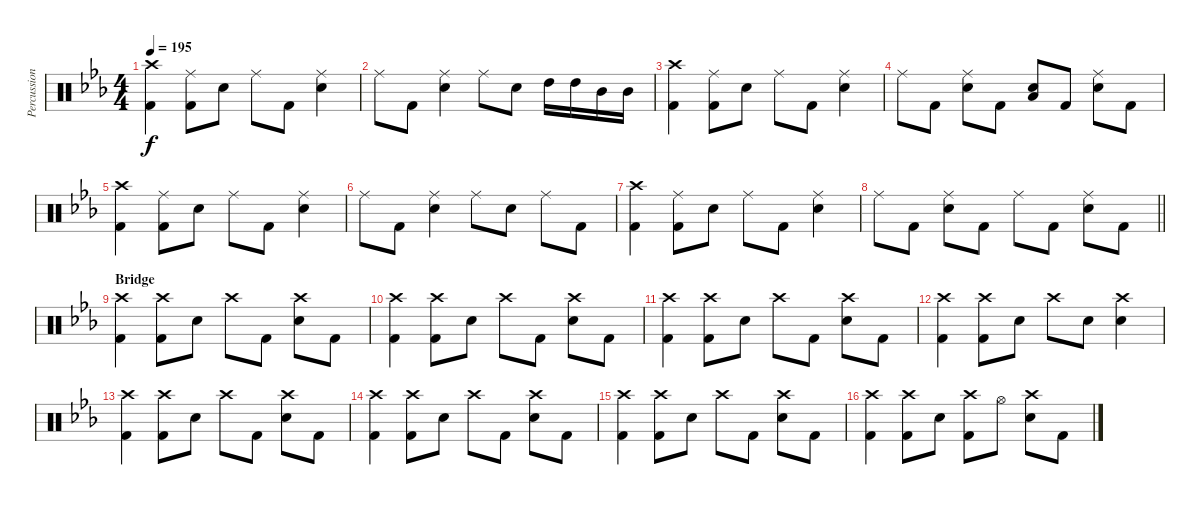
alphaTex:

\track ("Percussion" "Percussion") {instrument percussion}
\staff {score}
\articulation defaults
\ts (4 4)
\tempo 195
\clef neutral
\ks eb
("Crash high (hit)" "Kick (hit) 2").4{dy f} ("Ride (middle)" "Kick (hit) 2").8 "Snare (hit) 2".8 "Ride (middle)".8 "Kick (hit) 2".8 ("Ride (middle)" "Snare (hit) 2").4 |
"Ride (middle)".8 "Kick (hit) 2".8 ("Ride (middle)" "Snare (hit) 2").4 "Ride (middle)".8 "Snare (hit) 2".8 "High Tom (hit)".16 "High Tom (hit)".16 "Mid Tom (hit)".16 "Mid Tom (hit)".16 |
("Crash high (hit)" "Kick (hit) 2").4 ("Ride (middle)" "Kick (hit) 2").8 "Snare (hit) 2".8 "Ride (middle)".8 "Kick (hit) 2".8 ("Ride (middle)" "Snare (hit) 2").4 |
"Ride (middle)".8 "Kick (hit) 2".8 ("Ride (middle)" "Snare (hit) 2").8 "Kick (hit) 2".8 ("Low Tom (hit)" "Snare (hit) 2").8 "Kick (hit) 2".8 ("Ride (middle)" "Snare (hit) 2").8 "Kick (hit) 2".8 |
("Crash high (hit)" "Kick (hit) 2").4 ("Ride (middle)" "Kick (hit) 2").8 "Snare (hit) 2".8 "Ride (middle)".8 "Kick (hit) 2".8 ("Ride (middle)" "Snare (hit) 2").4 |
"Ride (middle)".8 "Kick (hit) 2".8 ("Ride (middle)" "Snare (hit) 2").4 "Ride (middle)".8 "Snare (hit) 2".8 "Ride (middle)".8 "Kick (hit) 2".8 |
("Crash high (hit)" "Kick (hit) 2").4 ("Ride (middle)" "Kick (hit) 2").8 "Snare (hit) 2".8 "Ride (middle)".8 "Kick (hit) 2".8 ("Ride (middle)" "Snare (hit) 2").4 |
\barLineRight lightlight "Ride (middle)".8 "Kick (hit) 2".8
("Ride (middle)" "Snare (hit) 2").8 "Kick (hit) 2".8 "Ride (middle)".8 "Kick (hit) 2".8 ("Ride (middle)" "Snare (hit) 2").8 "Kick (hit) 2".8 |
\section ("" "Bridge")
("Crash high (hit)" "Kick (hit) 2").4 ("Crash high (hit)" "Kick (hit) 2").8 "Snare (hit) 2".8 "Crash high (hit)".8 "Kick (hit) 2".8 ("Crash high (hit)" "Snare (hit) 2").8 "Kick (hit) 2".8 |
("Crash high (hit)" "Kick (hit) 2").4 ("Crash high (hit)" "Kick (hit) 2").8 "Snare (hit) 2".8 "Crash high (hit)".8 "Kick (hit) 2".8 ("Crash high (hit)" "Snare (hit) 2").8 "Kick (hit) 2".8 |
("Crash high (hit)" "Kick (hit) 2").4 ("Crash high (hit)" "Kick (hit) 2").8 "Snare (hit) 2".8 "Crash high (hit)".8 "Kick (hit) 2".8 ("Crash high (hit)" "Snare (hit) 2").8 "Kick (hit) 2".8 |
("Crash high (hit)" "Kick (hit) 2").4 ("Crash high (hit)" "Kick (hit) 2").8 "Snare (hit) 2".8 "Crash high (hit)".8 "Snare (hit) 2".8 ("Crash high (hit)" "Snare (hit) 2").4 |
("Crash high (hit)" "Kick (hit) 2").4 ("Crash high (hit)" "Kick (hit) 2").8 "Snare (hit) 2".8 "Crash high (hit)".8 "Kick (hit) 2".8 ("Crash high (hit)" "Snare (hit) 2").8 "Kick (hit) 2".8 |
("Crash high (hit)" "Kick (hit) 2").4 ("Crash high (hit)" "Kick (hit) 2").8 "Snare (hit) 2".8 "Crash high (hit)".8 "Kick (hit) 2".8 ("Crash high (hit)" "Snare (hit) 2").8 "Kick (hit) 2".8 |
("Crash high (hit)" "Kick (hit) 2").4 ("Crash high (hit)" "Kick (hit) 2").8 "Snare (hit) 2".8 "Crash high (hit)".8 "Kick (hit) 2".8 ("Crash high (hit)" "Snare (hit) 2").8 "Kick (hit) 2".8 |
("Crash high (hit)" "Kick (hit) 2").4 ("Crash high (hit)" "Kick (hit) 2").8 "Snare (hit) 2".8 ("Crash high (hit)" "Kick (hit) 2").8 "Hi-Hat (open)".8 ("Crash high (hit)" "Snare (hit) 2").8 "Kick (hit) 2".8
